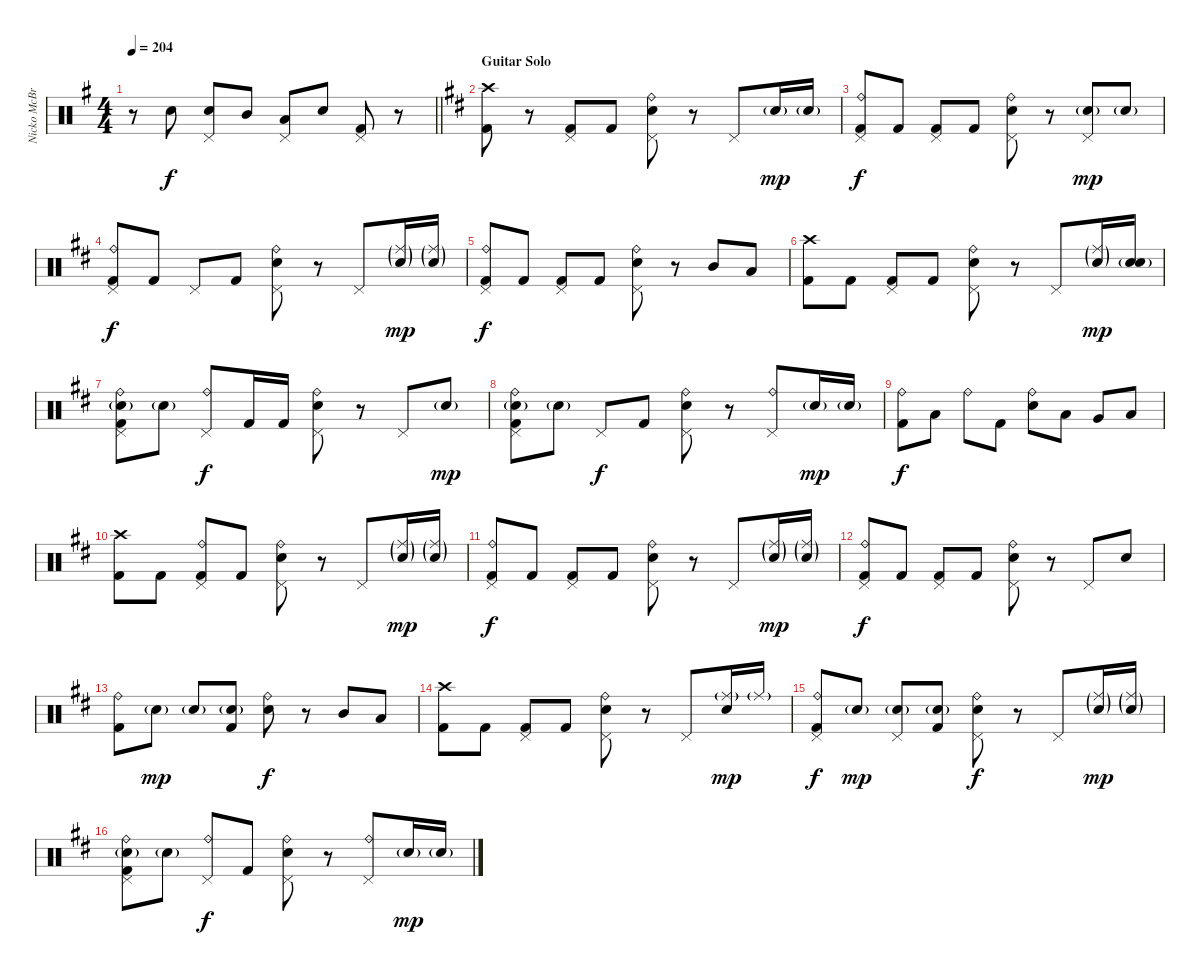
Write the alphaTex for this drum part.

\track ("Nicko McBrain (Drums)" "Nicko McBr") {instrument percussion}
\staff {score}
\articulation defaults
\ts (4 4)
\tempo 204
\clef neutral
\barLineRight lightlight
\ks eminor
r.8{dy f} "Snare (hit) 2".8 ("Pedal Hi-Hat (hit)" "Snare (hit) 2").8 "Mid Tom (hit)".8 ("Pedal Hi-Hat (hit)" "Low Tom (hit)").8 "Snare (hit) 2".8 ("Pedal Hi-Hat (hit)" "Kick (hit) 2").8 r.8 |
\section ("" "Guitar Solo")
\ks bminor
("Crash high (hit)" "Kick (hit) 2").8 r.8 ("Pedal Hi-Hat (hit)" "Kick (hit) 2").8 "Kick (hit) 2".8 ("Ride (bell)" "Pedal Hi-Hat (hit)" "Snare (hit) 2").8 r.8 "Pedal Hi-Hat (hit)".8 "Snare (hit) 2"{g}.16{dy mp} "Snare (hit) 2"{g}.16 |
("Ride (bell)" "Pedal Hi-Hat (hit)" "Kick (hit) 2").8{dy f} "Kick (hit) 2".8 ("Pedal Hi-Hat (hit)" "Kick (hit) 2").8 "Kick (hit) 2".8 ("Ride (bell)" "Pedal Hi-Hat (hit)" "Snare (hit) 2").8 r.8 ("Pedal Hi-Hat (hit)" "Snare (hit) 2"{g}).8{dy mp} "Snare (hit) 2"{g}.8 |
("Ride (bell)" "Pedal Hi-Hat (hit)" "Kick (hit) 2").8{dy f} "Kick (hit) 2".8 "Pedal Hi-Hat (hit)".8 "Kick (hit) 2".8 ("Ride (bell)" "Pedal Hi-Hat (hit)" "Snare (hit) 2").8 r.8 "Pedal Hi-Hat (hit)".8 ("Ride (middle)"{g} "Snare (hit) 2"{g}).16{dy mp} ("Ride (middle)"{g} "Snare (hit) 2"{g}).16 |
("Ride (bell)" "Pedal Hi-Hat (hit)" "Kick (hit) 2").8{dy f} "Kick (hit) 2".8 ("Pedal Hi-Hat (hit)" "Kick (hit) 2").8 "Kick (hit) 2".8 ("Ride (bell)" "Pedal Hi-Hat (hit)" "Snare (hit) 2").8 r.8 "Mid Tom (hit)".8 "Low Tom (hit)".8 |
("Crash high (hit)" "Kick (hit) 2").8 "Kick (hit) 2".8 ("Pedal Hi-Hat (hit)" "Kick (hit) 2").8 "Kick (hit) 2".8 ("Ride (bell)" "Pedal Hi-Hat (hit)" "Snare (hit) 2").8 r.8 "Pedal Hi-Hat (hit)".8 ("Ride (middle)"{g} "Snare (hit) 2"{g}).16{dy mp} ("Snare (hit)"{g} "Snare (hit) 2"{g}).16 |
("Ride (bell)" "Pedal Hi-Hat (hit)" "Snare (hit) 2"{g} "Kick (hit) 2").8 "Snare (hit) 2"{g}.8 ("Ride (bell)" "Pedal Hi-Hat (hit)").8{dy f} "Kick (hit) 2".16 "Kick (hit) 2".16 ("Ride (bell)" "Pedal Hi-Hat (hit)" "Snare (hit) 2").8 r.8 "Pedal Hi-Hat (hit)".8 "Snare (hit) 2"{g}.8{dy mp} |
("Ride (bell)" "Pedal Hi-Hat (hit)" "Snare (hit) 2"{g} "Kick (hit) 2").8 "Snare (hit) 2"{g}.8 "Pedal Hi-Hat (hit)".8{dy f} "Kick (hit) 2".8 ("Ride (bell)" "Pedal Hi-Hat (hit)" "Snare (hit) 2").8 r.8 ("Ride (bell)" "Pedal Hi-Hat (hit)").8 "Snare (hit) 2"{g}.16{dy mp} "Snare (hit) 2"{g}.16 |
("Ride (bell)" "Kick (hit) 2").8{dy f} "Low Tom (hit)".8 "Ride (bell)".8 "Kick (hit) 2".8 ("Ride (bell)" "Snare (hit) 2").8 "Low Tom (hit)".8 "Very Low Tom (hit)".8 "Low Floor Tom (hit)".8 |
("Crash high (hit)" "Kick (hit) 2").8 "Kick (hit) 2".8 ("Ride (bell)" "Pedal Hi-Hat (hit)" "Kick (hit) 2").8 "Kick (hit) 2".8 ("Ride (bell)" "Pedal Hi-Hat (hit)" "Snare (hit) 2").8 r.8 "Pedal Hi-Hat (hit)".8 ("Ride (middle)"{g} "Snare (hit) 2"{g}).16{dy mp} ("Ride (middle)"{g} "Snare (hit) 2"{g}).16 |
("Ride (bell)" "Pedal Hi-Hat (hit)" "Kick (hit) 2").8{dy f} "Kick (hit) 2".8 ("Pedal Hi-Hat (hit)" "Kick (hit) 2").8 "Kick (hit) 2".8 ("Ride (bell)" "Pedal Hi-Hat (hit)" "Snare (hit) 2").8 r.8 "Pedal Hi-Hat (hit)".8 ("Ride (middle)"{g} "Snare (hit) 2"{g}).16{dy mp} ("Ride (middle)"{g} "Snare (hit) 2"{g}).16 |
("Ride (bell)" "Pedal Hi-Hat (hit)" "Kick (hit) 2").8{dy f} "Kick (hit) 2".8 ("Pedal Hi-Hat (hit)" "Kick (hit) 2").8 "Kick (hit) 2".8 ("Ride (bell)" "Pedal Hi-Hat (hit)" "Snare (hit) 2").8 r.8 "Pedal Hi-Hat (hit)".8 "Snare (hit) 2".8 |
("Ride (bell)" "Kick (hit) 2").8 "Snare (hit) 2"{g}.8{dy mp} "Snare (hit) 2"{g}.8 ("Snare (hit) 2"{g} "Kick (hit) 2").8 ("Ride (bell)" "Snare (hit) 2").8{dy f} r.8 "Mid Tom (hit)".8 "Low Tom (hit)".8 |
("Crash high (hit)" "Kick (hit) 2").8 "Kick (hit) 2".8 ("Pedal Hi-Hat (hit)" "Kick (hit) 2").8 "Kick (hit) 2".8 ("Ride (bell)" "Pedal Hi-Hat (hit)" "Snare (hit) 2").8 r.8 "Pedal Hi-Hat (hit)".8 ("Ride (middle)"{g} "Snare (hit) 2").16{dy mp} "Ride (middle)"{g}.16 |
("Ride (bell)" "Pedal Hi-Hat (hit)" "Kick (hit) 2").8{dy f} "Snare (hit) 2"{g}.8{dy mp} ("Pedal Hi-Hat (hit)" "Snare (hit) 2"{g}).8 ("Snare (hit) 2"{g} "Kick (hit) 2").8 ("Ride (bell)" "Pedal Hi-Hat (hit)" "Snare (hit) 2").8{dy f} r.8 "Pedal Hi-Hat (hit)".8 ("Ride (middle)"{g} "Snare (hit) 2"{g}).16{dy mp} ("Ride (middle)"{g} "Snare (hit) 2"{g}).16 |
("Ride (bell)" "Pedal Hi-Hat (hit)" "Snare (hit) 2"{g} "Kick (hit) 2").8 "Snare (hit) 2"{g}.8 ("Ride (bell)" "Pedal Hi-Hat (hit)").8{dy f} "Kick (hit) 2".8 ("Ride (bell)" "Pedal Hi-Hat (hit)" "Snare (hit) 2").8 r.8 ("Ride (bell)" "Pedal Hi-Hat (hit)").8 "Snare (hit) 2"{g}.16{dy mp} "Snare (hit) 2"{g}.16
